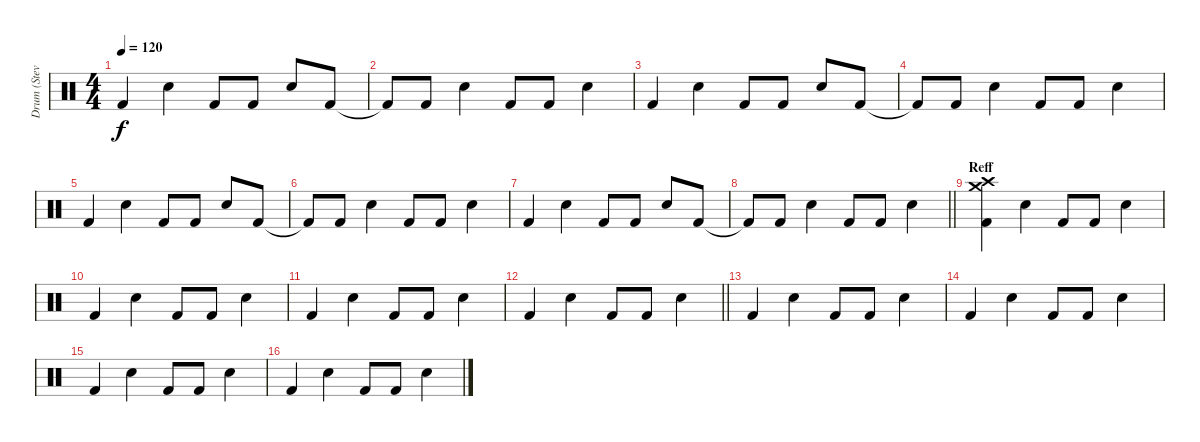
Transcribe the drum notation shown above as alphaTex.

\track ("Drum (Steven)" "Drum (Stev") {instrument percussion}
\staff {score}
\articulation defaults
\ts (4 4)
\tempo 120
\clef neutral
\ks c "Kick (hit) 2".4{dy f} "Snare (hit) 2".4 "Kick (hit) 2".8 "Kick (hit) 2".8 "Snare (hit) 2".8 "Kick (hit) 2".8
|
"Kick (hit) 2"{t}.8 "Kick (hit) 2".8 "Snare (hit) 2".4 "Kick (hit) 2".8 "Kick (hit) 2".8 "Snare (hit) 2".4 |
"Kick (hit) 2".4 "Snare (hit) 2".4 "Kick (hit) 2".8 "Kick (hit) 2".8 "Snare (hit) 2".8 "Kick (hit) 2".8 |
"Kick (hit) 2"{t}.8 "Kick (hit) 2".8 "Snare (hit) 2".4 "Kick (hit) 2".8 "Kick (hit) 2".8 "Snare (hit) 2".4 |
"Kick (hit) 2".4 "Snare (hit) 2".4 "Kick (hit) 2".8 "Kick (hit) 2".8 "Snare (hit) 2".8 "Kick (hit) 2".8 |
"Kick (hit) 2"{t}.8 "Kick (hit) 2".8 "Snare (hit) 2".4 "Kick (hit) 2".8 "Kick (hit) 2".8 "Snare (hit) 2".4 |
"Kick (hit) 2".4 "Snare (hit) 2".4 "Kick (hit) 2".8 "Kick (hit) 2".8 "Snare (hit) 2".8 "Kick (hit) 2".8 |
\barLineRight lightlight "Kick (hit) 2"{t}.8 "Kick (hit) 2".8 "Snare (hit) 2".4 "Kick (hit) 2".8 "Kick (hit) 2".8 "Snare (hit) 2".4
|
\section ("" "Reff")
("Kick (hit) 2" "Crash high (hit)" "Crash medium (hit)").4 "Snare (hit) 2".4 "Kick (hit) 2".8 "Kick (hit) 2".8 "Snare (hit) 2".4 |
"Kick (hit) 2".4 "Snare (hit) 2".4 "Kick (hit) 2".8 "Kick (hit) 2".8 "Snare (hit) 2".4 |
"Kick (hit) 2".4 "Snare (hit) 2".4 "Kick (hit) 2".8 "Kick (hit) 2".8 "Snare (hit) 2".4 |
\barLineRight lightlight "Kick (hit) 2".4 "Snare (hit) 2".4 "Kick (hit) 2".8 "Kick (hit) 2".8 "Snare (hit) 2".4
|
"Kick (hit) 2".4 "Snare (hit) 2".4 "Kick (hit) 2".8 "Kick (hit) 2".8 "Snare (hit) 2".4 |
"Kick (hit) 2".4 "Snare (hit) 2".4 "Kick (hit) 2".8 "Kick (hit) 2".8 "Snare (hit) 2".4 |
"Kick (hit) 2".4 "Snare (hit) 2".4 "Kick (hit) 2".8 "Kick (hit) 2".8 "Snare (hit) 2".4 |
"Kick (hit) 2".4 "Snare (hit) 2".4 "Kick (hit) 2".8 "Kick (hit) 2".8 "Snare (hit) 2".4
